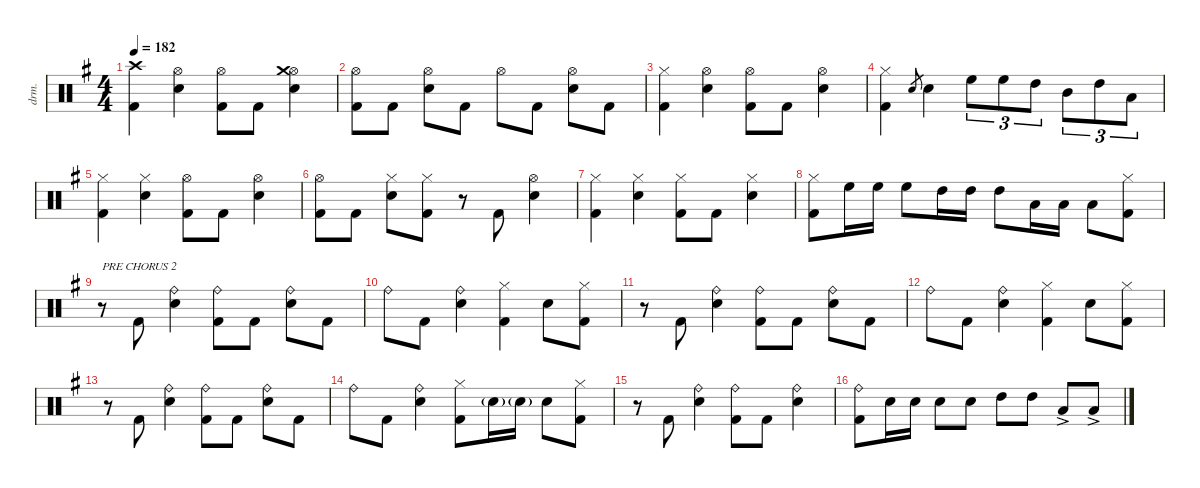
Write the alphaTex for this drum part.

\defaultSystemsLayout 4
\hideDynamics
\bracketExtendMode nobrackets
\otherSystemsTrackNameOrientation horizontal
\track ("Drum" "drm.") {defaultSystemsLayout 4 instrument percussion}
\staff {score}
\articulation defaults
\ts (4 4)
\tempo 182
\clef neutral
\ks g
("Kick (hit) 2"{acc forcenatural} "Crash high (hit)"{acc forcenatural}).4{dy f beam Down} ("Snare (hit) 2"{acc forcenatural} "Hi-Hat (open)"{acc forcenatural}).4{beam Down} ("Kick (hit) 2"{acc forcenatural} "Hi-Hat (open)"{acc forcenatural}).8{beam Down} "Kick (hit) 2"{acc forcenatural}.8{beam Down} ("Snare (hit) 2"{acc forcenatural} "Hi-Hat (open)"{acc forcenatural} "Crash medium (hit)"{acc forcenatural}).4{beam Down} |
("Kick (hit) 2"{acc forcenatural} "Hi-Hat (open)"{acc forcenatural}).8{beam Down} "Kick (hit) 2"{acc forcenatural}.8{beam Down} ("Snare (hit) 2"{acc forcenatural} "Hi-Hat (open)"{acc forcenatural}).8{beam Down} "Kick (hit) 2"{acc forcenatural}.8{beam Down} "Hi-Hat (open)"{acc forcenatural}.8{beam Down} "Kick (hit) 2"{acc forcenatural}.8{beam Down} ("Snare (hit) 2"{acc forcenatural} "Hi-Hat (open)"{acc forcenatural}).8{beam Down} "Kick (hit) 2"{acc forcenatural}.8{beam Down} |
("Kick (hit) 2"{acc forcenatural} "Hi-Hat (closed)"{acc forcenatural}).4{beam Down} ("Snare (hit) 2"{acc forcenatural} "Hi-Hat (open)"{acc forcenatural}).4{beam Down} ("Kick (hit) 2"{acc forcenatural} "Hi-Hat (open)"{acc forcenatural}).8{beam Down} "Kick (hit) 2"{acc forcenatural}.8{beam Down} ("Snare (hit) 2"{acc forcenatural} "Hi-Hat (open)"{acc forcenatural}).4{beam Down} |
("Kick (hit) 2"{acc forcenatural} "Hi-Hat (closed)"{acc forcenatural}).4{beam Down} "Snare (hit) 2"{acc forcenatural}.8{gr beam Up} "Snare (hit) 2"{acc forcenatural}.4{beam Down} "High Floor Tom (hit)"{acc forcenatural}.8{tu (3 2) beam Down} "High Floor Tom (hit)"{acc forcenatural}.8{tu (3 2) beam Down} "High Tom (hit)"{acc forcenatural}.8{tu (3 2) beam Down} "Mid Tom (hit)"{acc forcenatural}.8{tu (3 2) beam Down} "High Tom (hit)"{acc forcenatural}.8{tu (3 2) beam Down} "Low Tom (hit)"{acc forcenatural}.8{tu (3 2) beam Down} |
("Kick (hit) 2"{acc forcenatural} "Hi-Hat (closed)"{acc forcenatural}).4{beam Down} ("Snare (hit) 2"{acc forcenatural} "Hi-Hat (closed)"{acc forcenatural}).4{beam Down} ("Kick (hit) 2"{acc forcenatural} "Hi-Hat (open)"{acc forcenatural}).8{beam Down} "Kick (hit) 2"{acc forcenatural}.8{beam Down} ("Snare (hit) 2"{acc forcenatural} "Hi-Hat (open)"{acc forcenatural}).4{beam Down} |
("Kick (hit) 2"{acc forcenatural} "Hi-Hat (open)"{acc forcenatural}).8{beam Down} "Kick (hit) 2"{acc forcenatural}.8{beam Down} ("Snare (hit) 2"{acc forcenatural} "Hi-Hat (closed)"{acc forcenatural}).8{beam Down} ("Kick (hit) 2"{acc forcenatural} "Hi-Hat (closed)"{acc forcenatural}).8{beam Down} r.8{beam Down} "Kick (hit) 2"{acc forcenatural}.8{beam Up} ("Snare (hit) 2"{acc forcenatural} "Hi-Hat (open)"{acc forcenatural}).4{beam Down} |
("Kick (hit) 2"{acc forcenatural} "Hi-Hat (closed)"{acc forcenatural}).4{beam Down} ("Snare (hit) 2"{acc forcenatural} "Hi-Hat (closed)"{acc forcenatural}).4{beam Down} ("Kick (hit) 2"{acc forcenatural} "Hi-Hat (closed)"{acc forcenatural}).8{beam Down} "Kick (hit) 2"{acc forcenatural}.8{beam Down} ("Snare (hit) 2"{acc forcenatural} "Hi-Hat (closed)"{acc forcenatural}).4{beam Down} |
("Kick (hit) 2"{acc forcenatural} "Hi-Hat (closed)"{acc forcenatural}).8{beam Down} "High Floor Tom (hit)"{acc forcenatural}.16{beam Down} "High Floor Tom (hit)"{acc forcenatural}.16{beam Down} "High Floor Tom (hit)"{acc forcenatural}.8{beam Down} "High Tom (hit)"{acc forcenatural}.16{beam Down} "High Tom (hit)"{acc forcenatural}.16{beam Down} "High Tom (hit)"{acc forcenatural}.8{beam Down} "Low Tom (hit)"{acc forcenatural}.16{beam Down} "Low Tom (hit)"{acc forcenatural}.16{beam Down} "Low Tom (hit)"{acc forcenatural}.8{beam Down} ("Kick (hit) 2"{acc forcenatural} "Hi-Hat (closed)"{acc forcenatural}).8{beam Down} |
r.8{txt "PRE CHORUS 2" beam Down} "Kick (hit) 2"{acc forcenatural}.8{dy mf beam Up} ("Snare (hit) 2"{acc forcenatural} "Ride (bell)"{acc forcenatural}).4{beam Down} ("Kick (hit) 2"{acc forcenatural} "Ride (bell)"{acc forcenatural}).8{beam Down} "Kick (hit) 2"{acc forcenatural}.8{beam Down} ("Snare (hit) 2"{acc forcenatural} "Ride (bell)"{acc forcenatural}).8{beam Down} "Kick (hit) 2"{acc forcenatural}.8{beam Down} |
"Ride (bell)"{acc forcenatural}.8{beam Down} "Kick (hit) 2"{acc forcenatural}.8{beam Down} ("Snare (hit) 2"{acc forcenatural} "Ride (bell)"{acc forcenatural}).4{beam Down} ("Kick (hit) 2"{acc forcenatural} "Hi-Hat (closed)"{acc forcenatural}).4{beam Down} "Snare (hit) 2"{acc forcenatural}.8{beam Down} ("Kick (hit) 2"{acc forcenatural} "Hi-Hat (closed)"{acc forcenatural}).8{beam Down} |
r.8{beam Down} "Kick (hit) 2"{acc forcenatural}.8{beam Up} ("Snare (hit) 2"{acc forcenatural} "Ride (bell)"{acc forcenatural}).4{beam Down} ("Kick (hit) 2"{acc forcenatural} "Ride (bell)"{acc forcenatural}).8{beam Down} "Kick (hit) 2"{acc forcenatural}.8{beam Down} ("Snare (hit) 2"{acc forcenatural} "Ride (bell)"{acc forcenatural}).8{beam Down} "Kick (hit) 2"{acc forcenatural}.8{beam Down} |
"Ride (bell)"{acc forcenatural}.8{beam Down} "Kick (hit) 2"{acc forcenatural}.8{beam Down} ("Snare (hit) 2"{acc forcenatural} "Ride (bell)"{acc forcenatural}).4{beam Down} ("Kick (hit) 2"{acc forcenatural} "Hi-Hat (closed)"{acc forcenatural}).4{beam Down} "Snare (hit) 2"{acc forcenatural}.8{beam Down} ("Kick (hit) 2"{acc forcenatural} "Hi-Hat (closed)"{acc forcenatural}).8{beam Down} |
r.8{beam Down} "Kick (hit) 2"{acc forcenatural}.8{beam Up} ("Snare (hit) 2"{acc forcenatural} "Ride (bell)"{acc forcenatural}).4{beam Down} ("Kick (hit) 2"{acc forcenatural} "Ride (bell)"{acc forcenatural}).8{beam Down} "Kick (hit) 2"{acc forcenatural}.8{beam Down} ("Snare (hit) 2"{acc forcenatural} "Ride (bell)"{acc forcenatural}).8{beam Down} "Kick (hit) 2"{acc forcenatural}.8{beam Down} |
"Ride (bell)"{acc forcenatural}.8{beam Down} "Kick (hit) 2"{acc forcenatural}.8{beam Down} ("Snare (hit) 2"{acc forcenatural} "Ride (bell)"{acc forcenatural}).4{beam Down} ("Kick (hit) 2"{acc forcenatural} "Hi-Hat (closed)"{acc forcenatural}).8{beam Down} "Snare (hit) 2"{g acc forcenatural}.16{beam Down} "Snare (hit) 2"{g acc forcenatural}.16{beam Down} "Snare (hit) 2"{acc forcenatural}.8{beam Down} ("Kick (hit) 2"{acc forcenatural} "Hi-Hat (closed)"{acc forcenatural}).8{beam Down} |
r.8{beam Down} "Kick (hit) 2"{acc forcenatural}.8{beam Up} ("Snare (hit) 2"{acc forcenatural} "Ride (bell)"{acc forcenatural}).4{beam Down} ("Kick (hit) 2"{acc forcenatural} "Ride (bell)"{acc forcenatural}).8{beam Down} "Kick (hit) 2"{acc forcenatural}.8{beam Down} ("Snare (hit) 2"{acc forcenatural} "Ride (bell)"{acc forcenatural}).4{beam Down} |
("Kick (hit) 2"{acc forcenatural} "Ride (bell)"{acc forcenatural}).8{beam Down} "Snare (hit) 2"{acc forcenatural}.16{beam Down} "Snare (hit) 2"{acc forcenatural}.16{beam Down} "Snare (hit) 2"{acc forcenatural}.8{beam Down} "Snare (hit) 2"{acc forcenatural}.8{beam Down} "High Tom (hit)"{acc forcenatural}.8{beam Down} "High Tom (hit)"{acc forcenatural}.8{beam Down} "Low Tom (hit)"{ac acc forcenatural}.8{beam Up} "Low Tom (hit)"{ac acc forcenatural}.8{beam Up}
